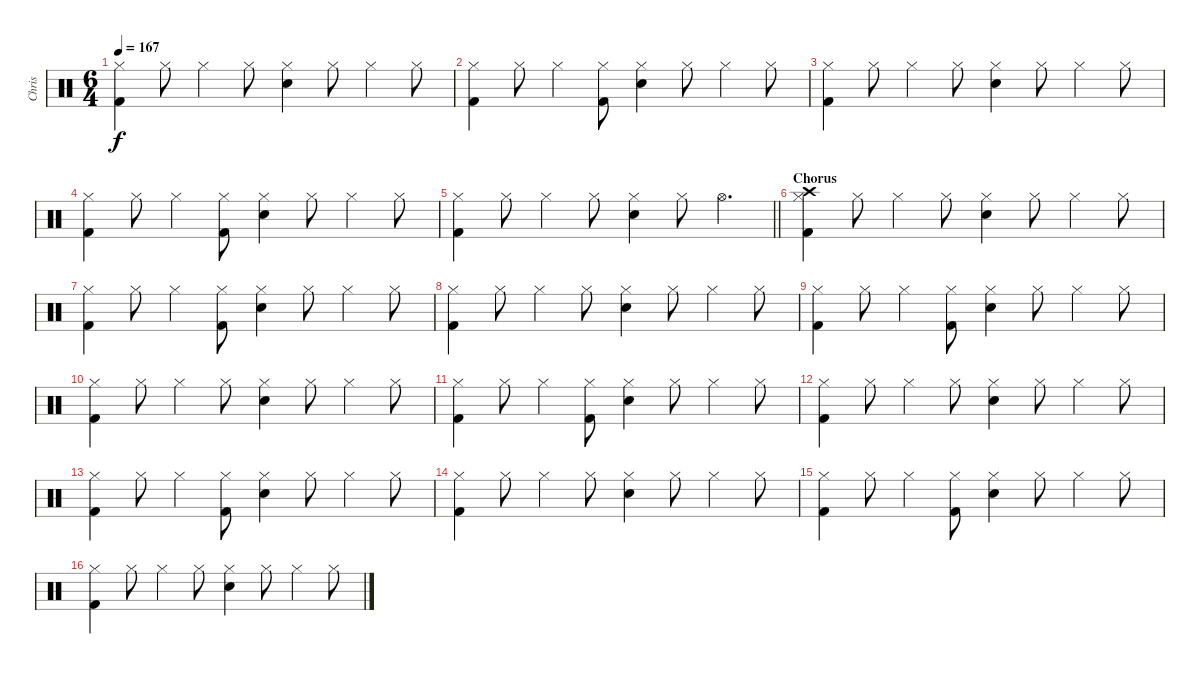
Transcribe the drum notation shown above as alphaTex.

\track ("Chris" "Chris") {instrument percussion}
\staff {score}
\articulation defaults
\ts (6 4)
\tempo 167
\clef neutral
\ks c
("Hi-Hat (closed)" "Kick (hit) 2").4{dy f} "Hi-Hat (closed)".8 "Hi-Hat (closed)".4 "Hi-Hat (closed)".8 ("Hi-Hat (closed)" "Electric Snare (hit)").4 "Hi-Hat (closed)".8 "Hi-Hat (closed)".4 "Hi-Hat (closed)".8 |
("Hi-Hat (closed)" "Kick (hit) 2").4 "Hi-Hat (closed)".8 "Hi-Hat (closed)".4 ("Hi-Hat (closed)" "Kick (hit) 2").8 ("Hi-Hat (closed)" "Electric Snare (hit)").4 "Hi-Hat (closed)".8 "Hi-Hat (closed)".4 "Hi-Hat (closed)".8 |
("Hi-Hat (closed)" "Kick (hit) 2").4 "Hi-Hat (closed)".8 "Hi-Hat (closed)".4 "Hi-Hat (closed)".8 ("Hi-Hat (closed)" "Electric Snare (hit)").4 "Hi-Hat (closed)".8 "Hi-Hat (closed)".4 "Hi-Hat (closed)".8 |
("Hi-Hat (closed)" "Kick (hit) 2").4 "Hi-Hat (closed)".8 "Hi-Hat (closed)".4 ("Hi-Hat (closed)" "Kick (hit) 2").8 ("Hi-Hat (closed)" "Electric Snare (hit)").4 "Hi-Hat (closed)".8 "Hi-Hat (closed)".4 "Hi-Hat (closed)".8 |
\barLineRight lightlight
("Hi-Hat (closed)" "Kick (hit) 2").4 "Hi-Hat (closed)".8 "Hi-Hat (closed)".4 "Hi-Hat (closed)".8 ("Hi-Hat (closed)" "Electric Snare (hit)").4 "Hi-Hat (closed)".8 "Hi-Hat (open)".4{d} |
\section ("" "Chorus")
("Crash high (hit)" "Hi-Hat (closed)" "Kick (hit) 2").4 "Hi-Hat (closed)".8 "Hi-Hat (closed)".4 "Hi-Hat (closed)".8 ("Hi-Hat (closed)" "Electric Snare (hit)").4 "Hi-Hat (closed)".8 "Hi-Hat (closed)".4 "Hi-Hat (closed)".8 |
("Hi-Hat (closed)" "Kick (hit) 2").4 "Hi-Hat (closed)".8 "Hi-Hat (closed)".4 ("Hi-Hat (closed)" "Kick (hit) 2").8 ("Hi-Hat (closed)" "Electric Snare (hit)").4 "Hi-Hat (closed)".8 "Hi-Hat (closed)".4 "Hi-Hat (closed)".8 |
("Hi-Hat (closed)" "Kick (hit) 2").4 "Hi-Hat (closed)".8 "Hi-Hat (closed)".4 "Hi-Hat (closed)".8 ("Hi-Hat (closed)" "Electric Snare (hit)").4 "Hi-Hat (closed)".8 "Hi-Hat (closed)".4 "Hi-Hat (closed)".8 |
("Hi-Hat (closed)" "Kick (hit) 2").4 "Hi-Hat (closed)".8 "Hi-Hat (closed)".4 ("Hi-Hat (closed)" "Kick (hit) 2").8 ("Hi-Hat (closed)" "Electric Snare (hit)").4 "Hi-Hat (closed)".8 "Hi-Hat (closed)".4 "Hi-Hat (closed)".8 |
("Hi-Hat (closed)" "Kick (hit) 2").4 "Hi-Hat (closed)".8 "Hi-Hat (closed)".4 "Hi-Hat (closed)".8 ("Hi-Hat (closed)" "Electric Snare (hit)").4 "Hi-Hat (closed)".8 "Hi-Hat (closed)".4 "Hi-Hat (closed)".8 |
("Hi-Hat (closed)" "Kick (hit) 2").4 "Hi-Hat (closed)".8 "Hi-Hat (closed)".4 ("Hi-Hat (closed)" "Kick (hit) 2").8 ("Hi-Hat (closed)" "Electric Snare (hit)").4 "Hi-Hat (closed)".8 "Hi-Hat (closed)".4 "Hi-Hat (closed)".8 |
("Hi-Hat (closed)" "Kick (hit) 2").4 "Hi-Hat (closed)".8 "Hi-Hat (closed)".4 "Hi-Hat (closed)".8 ("Hi-Hat (closed)" "Electric Snare (hit)").4 "Hi-Hat (closed)".8 "Hi-Hat (closed)".4 "Hi-Hat (closed)".8 |
("Hi-Hat (closed)" "Kick (hit) 2").4 "Hi-Hat (closed)".8 "Hi-Hat (closed)".4 ("Hi-Hat (closed)" "Kick (hit) 2").8 ("Hi-Hat (closed)" "Electric Snare (hit)").4 "Hi-Hat (closed)".8 "Hi-Hat (closed)".4 "Hi-Hat (closed)".8 |
("Hi-Hat (closed)" "Kick (hit) 2").4 "Hi-Hat (closed)".8 "Hi-Hat (closed)".4 "Hi-Hat (closed)".8 ("Hi-Hat (closed)" "Electric Snare (hit)").4 "Hi-Hat (closed)".8 "Hi-Hat (closed)".4 "Hi-Hat (closed)".8 |
("Hi-Hat (closed)" "Kick (hit) 2").4 "Hi-Hat (closed)".8 "Hi-Hat (closed)".4 ("Hi-Hat (closed)" "Kick (hit) 2").8 ("Hi-Hat (closed)" "Electric Snare (hit)").4 "Hi-Hat (closed)".8 "Hi-Hat (closed)".4 "Hi-Hat (closed)".8 |
("Hi-Hat (closed)" "Kick (hit) 2").4 "Hi-Hat (closed)".8 "Hi-Hat (closed)".4 "Hi-Hat (closed)".8 ("Hi-Hat (closed)" "Electric Snare (hit)").4 "Hi-Hat (closed)".8 "Hi-Hat (closed)".4 "Hi-Hat (closed)".8
